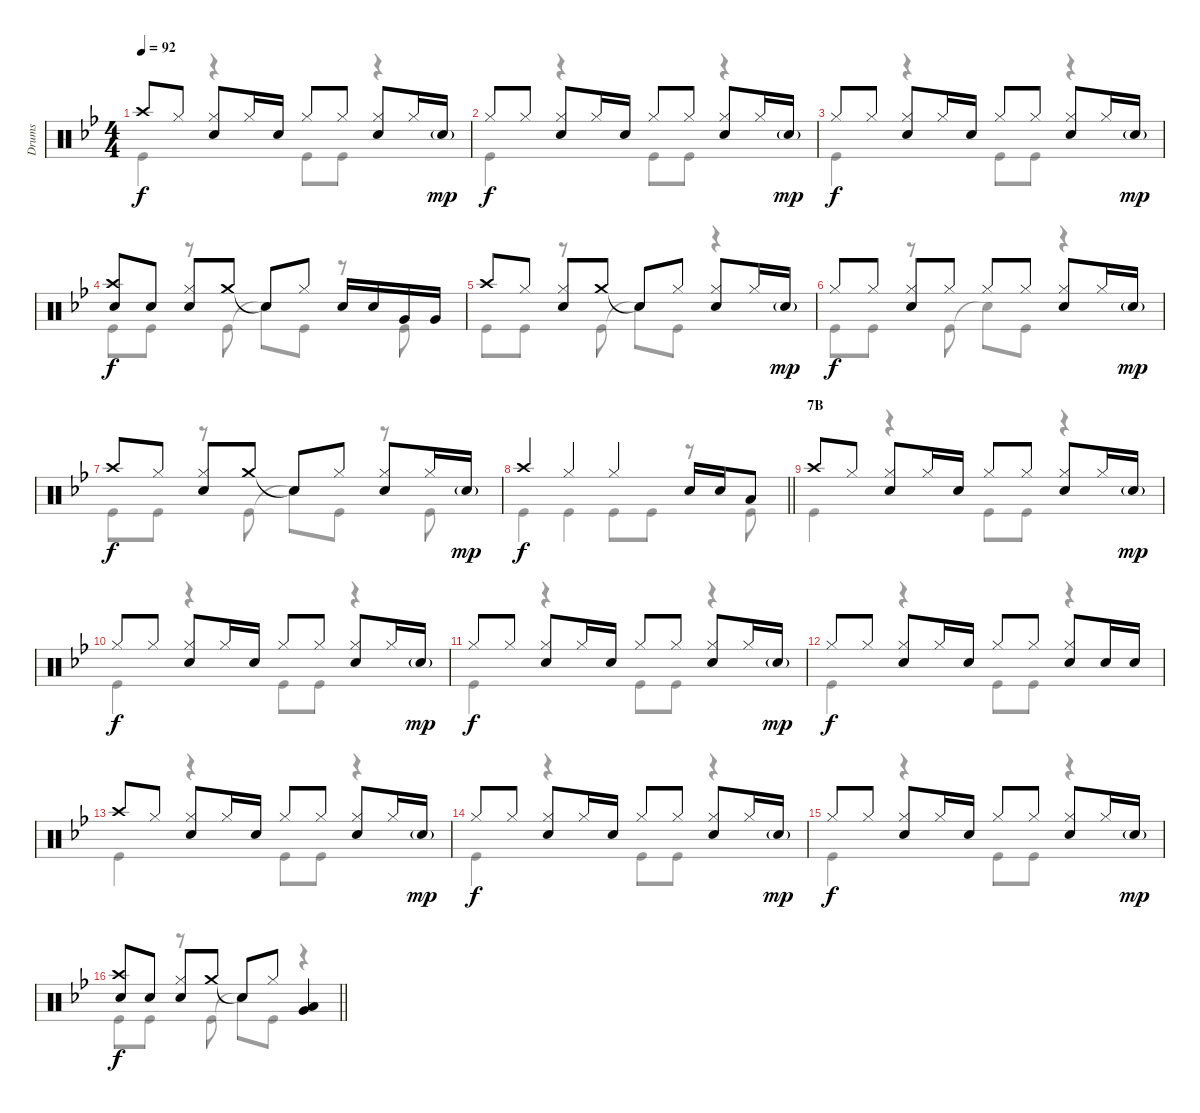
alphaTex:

\track ("Drums" "Drums") {instrument percussion}
\staff {score}
\articulation defaults
\voice
\ts (4 4)
\tempo 92
\clef neutral
\ks bb "Crash high (hit)".8{dy f} "Hi-Hat (closed)".8
("Hi-Hat (closed)" "Snare (hit) 2").8 "Hi-Hat (closed)".16 "Snare (hit) 2".16 "Hi-Hat (closed)".8 "Hi-Hat (closed)".8 ("Hi-Hat (closed)" "Snare (hit) 2").8 "Hi-Hat (closed)".16 "Snare (hit) 2"{g}.16{dy mp} |
"Hi-Hat (closed)".8{dy f} "Hi-Hat (closed)".8 ("Hi-Hat (closed)" "Snare (hit) 2").8 "Hi-Hat (closed)".16 "Snare (hit) 2".16 "Hi-Hat (closed)".8 "Hi-Hat (closed)".8 ("Hi-Hat (closed)" "Snare (hit) 2").8 "Hi-Hat (closed)".16 "Snare (hit) 2"{g}.16{dy mp} |
"Hi-Hat (closed)".8{dy f} "Hi-Hat (closed)".8 ("Hi-Hat (closed)" "Snare (hit) 2").8 "Hi-Hat (closed)".16 "Snare (hit) 2".16 "Hi-Hat (closed)".8 "Hi-Hat (closed)".8 ("Hi-Hat (closed)" "Snare (hit) 2").8 "Hi-Hat (closed)".16 "Snare (hit) 2"{g}.16{dy mp} |
("Crash high (hit)" "Snare (hit) 2").8{dy f} "Snare (hit) 2".8 ("Hi-Hat (closed)" "Snare (hit) 2").8 "Crash medium (hit)".8 "Snare (hit)"{t}.8 "Hi-Hat (closed)".8 "Snare (hit) 2".16 "Snare (hit) 2".16 "Very Low Tom (hit)".16 "Very Low Tom (hit)".16 |
"Crash high (hit)".8 "Hi-Hat (closed)".8 ("Hi-Hat (closed)" "Snare (hit) 2").8 "Crash medium (hit)".8 "Snare (hit)"{t}.8 "Hi-Hat (closed)".8 ("Hi-Hat (closed)" "Snare (hit) 2").8 "Hi-Hat (closed)".16 "Snare (hit) 2"{g}.16{dy mp} |
"Hi-Hat (closed)".8{dy f} "Hi-Hat (closed)".8 ("Hi-Hat (closed)" "Snare (hit) 2").8 "Hi-Hat (closed)".8 "Hi-Hat (closed)".8 "Hi-Hat (closed)".8 ("Hi-Hat (closed)" "Snare (hit) 2").8 "Hi-Hat (closed)".16 "Snare (hit) 2"{g}.16{dy mp} |
"Crash high (hit)".8{dy f} "Hi-Hat (closed)".8 ("Hi-Hat (closed)" "Snare (hit) 2").8 "Crash medium (hit)".8 "Snare (hit)"{t}.8 "Hi-Hat (closed)".8 ("Hi-Hat (closed)" "Snare (hit) 2").8 "Hi-Hat (closed)".16 "Snare (hit) 2"{g}.16{dy mp} |
\barLineRight lightlight "Crash high (hit)".4{dy f} "Hi-Hat (closed)".4 "Hi-Hat (closed)".4 "Snare (hit) 2".16 "Snare (hit) 2".16 "Low Tom (hit)".8
|
\section ("" "7B")
"Crash high (hit)".8 "Hi-Hat (closed)".8 ("Hi-Hat (closed)" "Snare (hit) 2").8 "Hi-Hat (closed)".16 "Snare (hit) 2".16 "Hi-Hat (closed)".8 "Hi-Hat (closed)".8 ("Hi-Hat (closed)" "Snare (hit) 2").8 "Hi-Hat (closed)".16 "Snare (hit) 2"{g}.16{dy mp} |
"Hi-Hat (closed)".8{dy f} "Hi-Hat (closed)".8 ("Hi-Hat (closed)" "Snare (hit) 2").8 "Hi-Hat (closed)".16 "Snare (hit) 2".16 "Hi-Hat (closed)".8 "Hi-Hat (closed)".8 ("Hi-Hat (closed)" "Snare (hit) 2").8 "Hi-Hat (closed)".16 "Snare (hit) 2"{g}.16{dy mp} |
"Hi-Hat (closed)".8{dy f} "Hi-Hat (closed)".8 ("Hi-Hat (closed)" "Snare (hit) 2").8 "Hi-Hat (closed)".16 "Snare (hit) 2".16 "Hi-Hat (closed)".8 "Hi-Hat (closed)".8 ("Hi-Hat (closed)" "Snare (hit) 2").8 "Hi-Hat (closed)".16 "Snare (hit) 2"{g}.16{dy mp} |
"Hi-Hat (closed)".8{dy f} "Hi-Hat (closed)".8 ("Hi-Hat (closed)" "Snare (hit) 2").8 "Hi-Hat (closed)".16 "Snare (hit) 2".16 "Hi-Hat (closed)".8 "Hi-Hat (closed)".8 ("Hi-Hat (closed)" "Snare (hit) 2").8 "Snare (hit) 2".16 "Snare (hit) 2".16 |
"Crash high (hit)".8 "Hi-Hat (closed)".8 ("Hi-Hat (closed)" "Snare (hit) 2").8 "Hi-Hat (closed)".16 "Snare (hit) 2".16 "Hi-Hat (closed)".8 "Hi-Hat (closed)".8 ("Hi-Hat (closed)" "Snare (hit) 2").8 "Hi-Hat (closed)".16 "Snare (hit) 2"{g}.16{dy mp} |
"Hi-Hat (closed)".8{dy f} "Hi-Hat (closed)".8 ("Hi-Hat (closed)" "Snare (hit) 2").8 "Hi-Hat (closed)".16 "Snare (hit) 2".16 "Hi-Hat (closed)".8 "Hi-Hat (closed)".8 ("Hi-Hat (closed)" "Snare (hit) 2").8 "Hi-Hat (closed)".16 "Snare (hit) 2"{g}.16{dy mp} |
"Hi-Hat (closed)".8{dy f} "Hi-Hat (closed)".8 ("Hi-Hat (closed)" "Snare (hit) 2").8 "Hi-Hat (closed)".16 "Snare (hit) 2".16 "Hi-Hat (closed)".8 "Hi-Hat (closed)".8 ("Hi-Hat (closed)" "Snare (hit) 2").8 "Hi-Hat (closed)".16 "Snare (hit) 2"{g}.16{dy mp} |
\barLineRight lightlight
("Crash high (hit)" "Snare (hit) 2").8{dy f} "Snare (hit) 2".8 ("Hi-Hat (closed)" "Snare (hit) 2").8 "Crash medium (hit)".8 "Snare (hit)"{t}.8 "Hi-Hat (closed)".8 ("Low Tom (hit)" "Very Low Tom (hit)").4
\voice
\clef neutral
\ottava regular
\simile none
\ks bb "Kick (hit)".4{dy f}
r.4 "Kick (hit)".8 "Kick (hit)".8 r.4 |
"Kick (hit)".4 r.4 "Kick (hit)".8 "Kick (hit)".8 r.4 |
"Kick (hit)".4 r.4 "Kick (hit)".8 "Kick (hit)".8 r.4 |
"Kick (hit)".8 "Kick (hit)".8 r.8 "Kick (hit)".8 "Snare (hit)"{t}.8 "Kick (hit)".8 r.8 "Kick (hit)".8 |
"Kick (hit)".8 "Kick (hit)".8 r.8 "Kick (hit)".8 "Snare (hit)"{t}.8 "Kick (hit)".8 r.4 |
"Kick (hit)".8 "Kick (hit)".8 r.8 "Kick (hit)".8 "Snare (hit)"{t}.8 "Kick (hit)".8 r.4 |
"Kick (hit)".8 "Kick (hit)".8 r.8 "Kick (hit)".8 "Snare (hit)"{t}.8 "Kick (hit)".8 r.8 "Kick (hit)".8 |
\barLineRight lightlight "Kick (hit)".4 "Kick (hit)".4 "Kick (hit)".8 "Kick (hit)".8
r.8 "Kick (hit)".8 |
"Kick (hit)".4 r.4 "Kick (hit)".8 "Kick (hit)".8 r.4 |
"Kick (hit)".4 r.4 "Kick (hit)".8 "Kick (hit)".8 r.4 |
"Kick (hit)".4 r.4 "Kick (hit)".8 "Kick (hit)".8 r.4 |
"Kick (hit)".4 r.4 "Kick (hit)".8 "Kick (hit)".8 r.4 |
"Kick (hit)".4 r.4 "Kick (hit)".8 "Kick (hit)".8 r.4 |
"Kick (hit)".4 r.4 "Kick (hit)".8 "Kick (hit)".8 r.4 |
"Kick (hit)".4 r.4 "Kick (hit)".8 "Kick (hit)".8 r.4 |
\barLineRight lightlight "Kick (hit)".8 "Kick (hit)".8
r.8 "Kick (hit)".8 "Snare (hit)"{t}.8 "Kick (hit)".8 r.4
